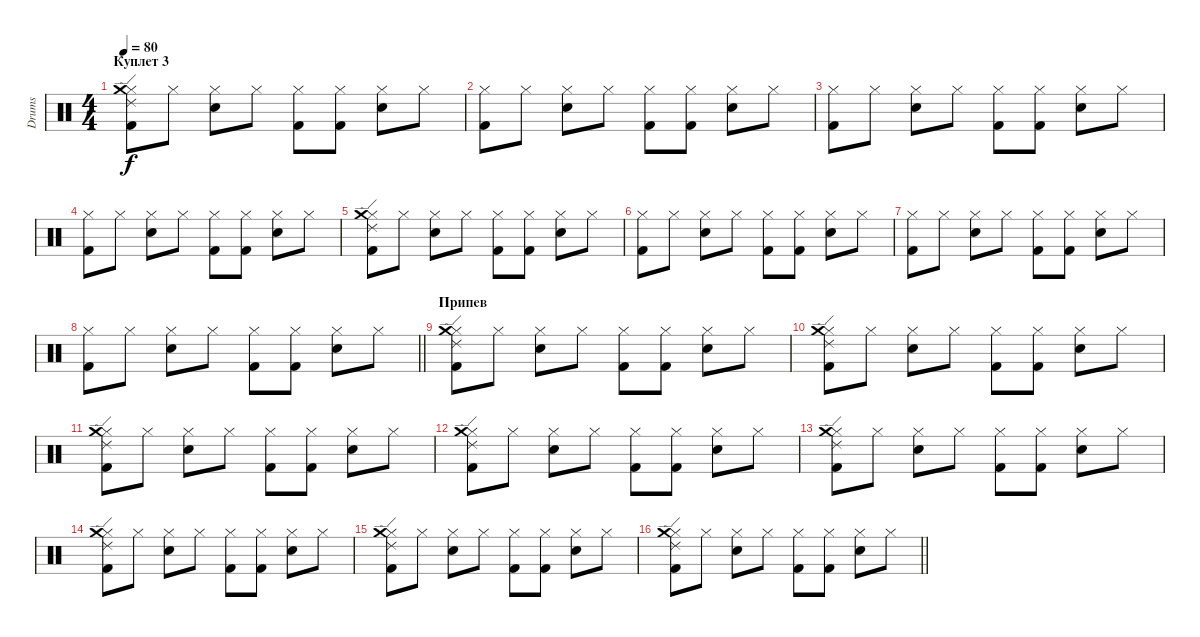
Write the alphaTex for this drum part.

\track ("Drums" "Drums") {instrument percussion}
\staff {score}
\articulation defaults
\ts (4 4)
\section ("" "Куплет 3")
\tempo 80
\clef neutral
\ks c
("Hi-Hat (closed)" "Kick (hit) 2" "Crash medium (hit)" "Ride (edge) 2").8{dy f} "Hi-Hat (closed)".8 ("Hi-Hat (closed)" "Snare (hit) 2").8 "Hi-Hat (closed)".8 ("Hi-Hat (closed)" "Kick (hit) 2").8 ("Hi-Hat (closed)" "Kick (hit) 2").8 ("Hi-Hat (closed)" "Snare (hit) 2").8 "Hi-Hat (closed)".8 |
("Hi-Hat (closed)" "Kick (hit) 2").8 "Hi-Hat (closed)".8 ("Hi-Hat (closed)" "Snare (hit) 2").8 "Hi-Hat (closed)".8 ("Hi-Hat (closed)" "Kick (hit) 2").8 ("Hi-Hat (closed)" "Kick (hit) 2").8 ("Hi-Hat (closed)" "Snare (hit) 2").8 "Hi-Hat (closed)".8 |
("Hi-Hat (closed)" "Kick (hit) 2").8 "Hi-Hat (closed)".8 ("Hi-Hat (closed)" "Snare (hit) 2").8 "Hi-Hat (closed)".8 ("Hi-Hat (closed)" "Kick (hit) 2").8 ("Hi-Hat (closed)" "Kick (hit) 2").8 ("Hi-Hat (closed)" "Snare (hit) 2").8 "Hi-Hat (closed)".8 |
("Hi-Hat (closed)" "Kick (hit) 2").8 "Hi-Hat (closed)".8 ("Hi-Hat (closed)" "Snare (hit) 2").8 "Hi-Hat (closed)".8 ("Hi-Hat (closed)" "Kick (hit) 2").8 ("Hi-Hat (closed)" "Kick (hit) 2").8 ("Hi-Hat (closed)" "Snare (hit) 2").8 "Hi-Hat (closed)".8 |
("Hi-Hat (closed)" "Kick (hit) 2" "Crash medium (hit)" "Ride (edge) 2").8 "Hi-Hat (closed)".8 ("Hi-Hat (closed)" "Snare (hit) 2").8 "Hi-Hat (closed)".8 ("Hi-Hat (closed)" "Kick (hit) 2").8 ("Hi-Hat (closed)" "Kick (hit) 2").8 ("Hi-Hat (closed)" "Snare (hit) 2").8 "Hi-Hat (closed)".8 |
("Hi-Hat (closed)" "Kick (hit) 2").8 "Hi-Hat (closed)".8 ("Hi-Hat (closed)" "Snare (hit) 2").8 "Hi-Hat (closed)".8 ("Hi-Hat (closed)" "Kick (hit) 2").8 ("Hi-Hat (closed)" "Kick (hit) 2").8 ("Hi-Hat (closed)" "Snare (hit) 2").8 "Hi-Hat (closed)".8 |
("Hi-Hat (closed)" "Kick (hit) 2").8 "Hi-Hat (closed)".8 ("Hi-Hat (closed)" "Snare (hit) 2").8 "Hi-Hat (closed)".8 ("Hi-Hat (closed)" "Kick (hit) 2").8 ("Hi-Hat (closed)" "Kick (hit) 2").8 ("Hi-Hat (closed)" "Snare (hit) 2").8 "Hi-Hat (closed)".8 |
\barLineRight lightlight
("Hi-Hat (closed)" "Kick (hit) 2").8 "Hi-Hat (closed)".8 ("Hi-Hat (closed)" "Snare (hit) 2").8 "Hi-Hat (closed)".8 ("Hi-Hat (closed)" "Kick (hit) 2").8 ("Hi-Hat (closed)" "Kick (hit) 2").8 ("Hi-Hat (closed)" "Snare (hit) 2").8 "Hi-Hat (closed)".8 |
\section ("" "Припев")
("Hi-Hat (closed)" "Kick (hit) 2" "Crash medium (hit)" "Ride (edge) 2").8 "Hi-Hat (closed)".8 ("Hi-Hat (closed)" "Snare (hit) 2").8 "Hi-Hat (closed)".8 ("Hi-Hat (closed)" "Kick (hit) 2").8 ("Hi-Hat (closed)" "Kick (hit) 2").8 ("Hi-Hat (closed)" "Snare (hit) 2").8 "Hi-Hat (closed)".8 |
("Hi-Hat (closed)" "Kick (hit) 2" "Crash medium (hit)" "Ride (edge) 2").8 "Hi-Hat (closed)".8 ("Hi-Hat (closed)" "Snare (hit) 2").8 "Hi-Hat (closed)".8 ("Hi-Hat (closed)" "Kick (hit) 2").8 ("Hi-Hat (closed)" "Kick (hit) 2").8 ("Hi-Hat (closed)" "Snare (hit) 2").8 "Hi-Hat (closed)".8 |
("Hi-Hat (closed)" "Kick (hit) 2" "Crash medium (hit)" "Ride (edge) 2").8 "Hi-Hat (closed)".8 ("Hi-Hat (closed)" "Snare (hit) 2").8 "Hi-Hat (closed)".8 ("Hi-Hat (closed)" "Kick (hit) 2").8 ("Hi-Hat (closed)" "Kick (hit) 2").8 ("Hi-Hat (closed)" "Snare (hit) 2").8 "Hi-Hat (closed)".8 |
("Hi-Hat (closed)" "Kick (hit) 2" "Crash medium (hit)" "Ride (edge) 2").8 "Hi-Hat (closed)".8 ("Hi-Hat (closed)" "Snare (hit) 2").8 "Hi-Hat (closed)".8 ("Hi-Hat (closed)" "Kick (hit) 2").8 ("Hi-Hat (closed)" "Kick (hit) 2").8 ("Hi-Hat (closed)" "Snare (hit) 2").8 "Hi-Hat (closed)".8 |
("Hi-Hat (closed)" "Kick (hit) 2" "Crash medium (hit)" "Ride (edge) 2").8 "Hi-Hat (closed)".8 ("Hi-Hat (closed)" "Snare (hit) 2").8 "Hi-Hat (closed)".8 ("Hi-Hat (closed)" "Kick (hit) 2").8 ("Hi-Hat (closed)" "Kick (hit) 2").8 ("Hi-Hat (closed)" "Snare (hit) 2").8 "Hi-Hat (closed)".8 |
("Hi-Hat (closed)" "Kick (hit) 2" "Crash medium (hit)" "Ride (edge) 2").8 "Hi-Hat (closed)".8 ("Hi-Hat (closed)" "Snare (hit) 2").8 "Hi-Hat (closed)".8 ("Hi-Hat (closed)" "Kick (hit) 2").8 ("Hi-Hat (closed)" "Kick (hit) 2").8 ("Hi-Hat (closed)" "Snare (hit) 2").8 "Hi-Hat (closed)".8 |
("Hi-Hat (closed)" "Kick (hit) 2" "Crash medium (hit)" "Ride (edge) 2").8 "Hi-Hat (closed)".8 ("Hi-Hat (closed)" "Snare (hit) 2").8 "Hi-Hat (closed)".8 ("Hi-Hat (closed)" "Kick (hit) 2").8 ("Hi-Hat (closed)" "Kick (hit) 2").8 ("Hi-Hat (closed)" "Snare (hit) 2").8 "Hi-Hat (closed)".8 |
\barLineRight lightlight
("Hi-Hat (closed)" "Kick (hit) 2" "Crash medium (hit)" "Ride (edge) 2").8 "Hi-Hat (closed)".8 ("Hi-Hat (closed)" "Snare (hit) 2").8 "Hi-Hat (closed)".8 ("Hi-Hat (closed)" "Kick (hit) 2").8 ("Hi-Hat (closed)" "Kick (hit) 2").8 ("Hi-Hat (closed)" "Snare (hit) 2").8 "Hi-Hat (closed)".8
